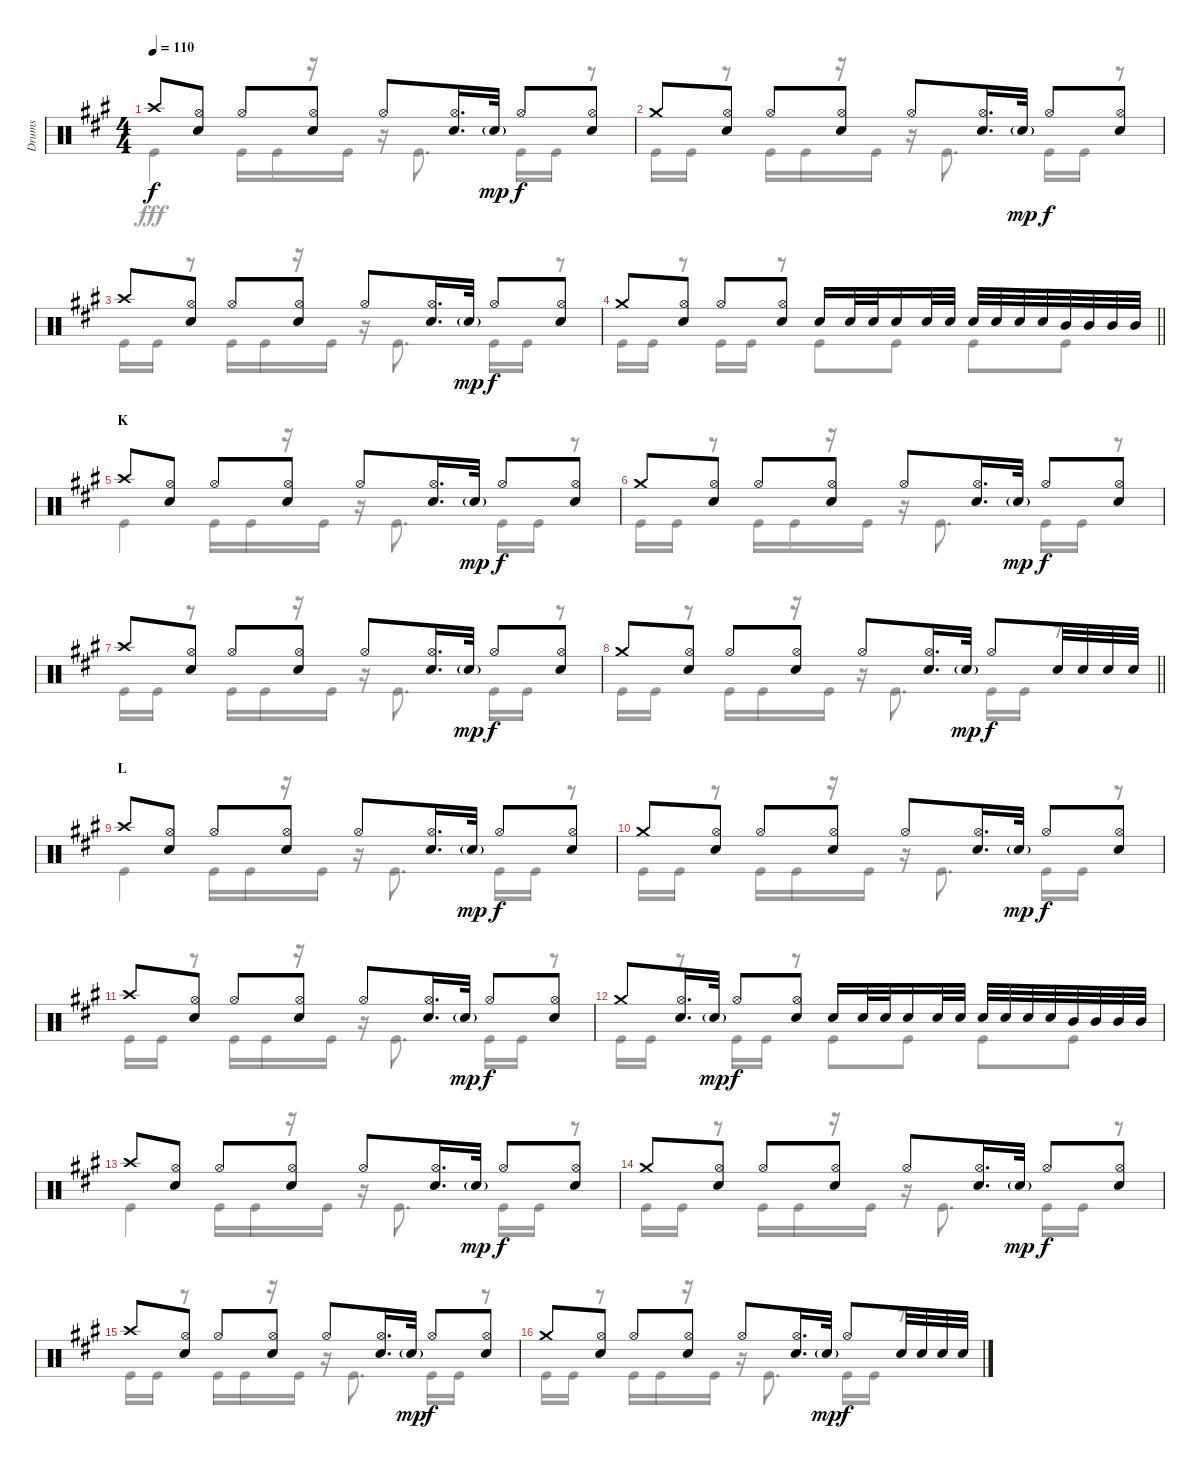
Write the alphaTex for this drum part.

\track ("Drums" "Drums") {instrument percussion}
\staff {score}
\articulation defaults
\voice
\ts (4 4)
\tempo 110
\clef neutral
\ks a "Crash high (hit)".8{dy f}
("Hi-Hat (open)" "Snare (hit) 2").8 "Hi-Hat (open)".8 ("Hi-Hat (open)" "Snare (hit) 2").8 "Hi-Hat (open)".8 ("Hi-Hat (open)" "Snare (hit) 2").16{d} "Snare (hit) 2"{g}.32{dy mp} "Hi-Hat (open)".8{dy f} ("Hi-Hat (open)" "Snare (hit) 2").8 |
"Crash medium (hit)".8 ("Hi-Hat (open)" "Snare (hit) 2").8 "Hi-Hat (open)".8 ("Hi-Hat (open)" "Snare (hit) 2").8 "Hi-Hat (open)".8 ("Hi-Hat (open)" "Snare (hit) 2").16{d} "Snare (hit) 2"{g}.32{dy mp} "Hi-Hat (open)".8{dy f} ("Hi-Hat (open)" "Snare (hit) 2").8 |
"Crash high (hit)".8 ("Hi-Hat (open)" "Snare (hit) 2").8 "Hi-Hat (open)".8 ("Hi-Hat (open)" "Snare (hit) 2").8 "Hi-Hat (open)".8 ("Hi-Hat (open)" "Snare (hit) 2").16{d} "Snare (hit) 2"{g}.32{dy mp} "Hi-Hat (open)".8{dy f} ("Hi-Hat (open)" "Snare (hit) 2").8 |
\barLineRight lightlight "Crash medium (hit)".8
("Hi-Hat (open)" "Snare (hit) 2").8 "Hi-Hat (open)".8 ("Hi-Hat (open)" "Snare (hit) 2").8 "Snare (hit) 2".16 "Snare (hit) 2".32 "Snare (hit) 2".32 "Snare (hit) 2".16 "Snare (hit) 2".32 "Snare (hit) 2".32 "Snare (hit) 2".32 "Snare (hit) 2".32 "Snare (hit) 2".32 "Snare (hit) 2".32 "Mid Tom (hit)".32 "Mid Tom (hit)".32 "Mid Tom (hit)".32 "Mid Tom (hit)".32 |
\section ("" "K")
"Crash high (hit)".8 ("Hi-Hat (open)" "Snare (hit) 2").8 "Hi-Hat (open)".8 ("Hi-Hat (open)" "Snare (hit) 2").8 "Hi-Hat (open)".8 ("Hi-Hat (open)" "Snare (hit) 2").16{d} "Snare (hit) 2"{g}.32{dy mp} "Hi-Hat (open)".8{dy f} ("Hi-Hat (open)" "Snare (hit) 2").8 |
"Crash medium (hit)".8 ("Hi-Hat (open)" "Snare (hit) 2").8 "Hi-Hat (open)".8 ("Hi-Hat (open)" "Snare (hit) 2").8 "Hi-Hat (open)".8 ("Hi-Hat (open)" "Snare (hit) 2").16{d} "Snare (hit) 2"{g}.32{dy mp} "Hi-Hat (open)".8{dy f} ("Hi-Hat (open)" "Snare (hit) 2").8 |
"Crash high (hit)".8 ("Hi-Hat (open)" "Snare (hit) 2").8 "Hi-Hat (open)".8 ("Hi-Hat (open)" "Snare (hit) 2").8 "Hi-Hat (open)".8 ("Hi-Hat (open)" "Snare (hit) 2").16{d} "Snare (hit) 2"{g}.32{dy mp} "Hi-Hat (open)".8{dy f} ("Hi-Hat (open)" "Snare (hit) 2").8 |
\barLineRight lightlight "Crash medium (hit)".8
("Hi-Hat (open)" "Snare (hit) 2").8 "Hi-Hat (open)".8 ("Hi-Hat (open)" "Snare (hit) 2").8 "Hi-Hat (open)".8 ("Hi-Hat (open)" "Snare (hit) 2").16{d} "Snare (hit) 2"{g}.32{dy mp} "Hi-Hat (open)".8{dy f} "Snare (hit) 2".32 "Snare (hit) 2".32 "Snare (hit) 2".32 "Snare (hit) 2".32 |
\section ("" "L")
"Crash high (hit)".8 ("Hi-Hat (open)" "Snare (hit) 2").8 "Hi-Hat (open)".8 ("Hi-Hat (open)" "Snare (hit) 2").8 "Hi-Hat (open)".8 ("Hi-Hat (open)" "Snare (hit) 2").16{d} "Snare (hit) 2"{g}.32{dy mp} "Hi-Hat (open)".8{dy f} ("Hi-Hat (open)" "Snare (hit) 2").8 |
"Crash medium (hit)".8 ("Hi-Hat (open)" "Snare (hit) 2").8 "Hi-Hat (open)".8 ("Hi-Hat (open)" "Snare (hit) 2").8 "Hi-Hat (open)".8 ("Hi-Hat (open)" "Snare (hit) 2").16{d} "Snare (hit) 2"{g}.32{dy mp} "Hi-Hat (open)".8{dy f} ("Hi-Hat (open)" "Snare (hit) 2").8 |
"Crash high (hit)".8 ("Hi-Hat (open)" "Snare (hit) 2").8 "Hi-Hat (open)".8 ("Hi-Hat (open)" "Snare (hit) 2").8 "Hi-Hat (open)".8 ("Hi-Hat (open)" "Snare (hit) 2").16{d} "Snare (hit) 2"{g}.32{dy mp} "Hi-Hat (open)".8{dy f} ("Hi-Hat (open)" "Snare (hit) 2").8 |
"Crash medium (hit)".8 ("Hi-Hat (open)" "Snare (hit) 2").16{d} "Snare (hit) 2"{g}.32{dy mp} "Hi-Hat (open)".8{dy f} ("Hi-Hat (open)" "Snare (hit) 2").8 "Snare (hit) 2".16 "Snare (hit) 2".32 "Snare (hit) 2".32 "Snare (hit) 2".16 "Snare (hit) 2".32 "Snare (hit) 2".32 "Snare (hit) 2".32 "Snare (hit) 2".32 "Snare (hit) 2".32 "Snare (hit) 2".32 "Mid Tom (hit)".32 "Mid Tom (hit)".32 "Mid Tom (hit)".32 "Mid Tom (hit)".32 |
"Crash high (hit)".8 ("Hi-Hat (open)" "Snare (hit) 2").8 "Hi-Hat (open)".8 ("Hi-Hat (open)" "Snare (hit) 2").8 "Hi-Hat (open)".8 ("Hi-Hat (open)" "Snare (hit) 2").16{d} "Snare (hit) 2"{g}.32{dy mp} "Hi-Hat (open)".8{dy f} ("Hi-Hat (open)" "Snare (hit) 2").8 |
"Crash medium (hit)".8 ("Hi-Hat (open)" "Snare (hit) 2").8 "Hi-Hat (open)".8 ("Hi-Hat (open)" "Snare (hit) 2").8 "Hi-Hat (open)".8 ("Hi-Hat (open)" "Snare (hit) 2").16{d} "Snare (hit) 2"{g}.32{dy mp} "Hi-Hat (open)".8{dy f} ("Hi-Hat (open)" "Snare (hit) 2").8 |
"Crash high (hit)".8 ("Hi-Hat (open)" "Snare (hit) 2").8 "Hi-Hat (open)".8 ("Hi-Hat (open)" "Snare (hit) 2").8 "Hi-Hat (open)".8 ("Hi-Hat (open)" "Snare (hit) 2").16{d} "Snare (hit) 2"{g}.32{dy mp} "Hi-Hat (open)".8{dy f} ("Hi-Hat (open)" "Snare (hit) 2").8 |
"Crash medium (hit)".8 ("Hi-Hat (open)" "Snare (hit) 2").8 "Hi-Hat (open)".8 ("Hi-Hat (open)" "Snare (hit) 2").8 "Hi-Hat (open)".8 ("Hi-Hat (open)" "Snare (hit) 2").16{d} "Snare (hit) 2"{g}.32{dy mp} "Hi-Hat (open)".8{dy f} "Snare (hit) 2".32 "Snare (hit) 2".32 "Snare (hit) 2".32 "Snare (hit) 2".32
\voice
\clef neutral
\ottava regular
\simile none
\ks a "Kick (hit)".4{dy fff} "Kick (hit)".16 "Kick (hit)".16
r.16 "Kick (hit)".16 r.16 "Kick (hit)".8{d} "Kick (hit)".16 "Kick (hit)".16 r.8 |
"Kick (hit)".16 "Kick (hit)".16 r.8 "Kick (hit)".16 "Kick (hit)".16 r.16 "Kick (hit)".16 r.16 "Kick (hit)".8{d} "Kick (hit)".16 "Kick (hit)".16 r.8 |
"Kick (hit)".16 "Kick (hit)".16 r.8 "Kick (hit)".16 "Kick (hit)".16 r.16 "Kick (hit)".16 r.16 "Kick (hit)".8{d} "Kick (hit)".16 "Kick (hit)".16 r.8 |
\barLineRight lightlight "Kick (hit)".16 "Kick (hit)".16
r.8 "Kick (hit)".16 "Kick (hit)".16 r.8 "Kick (hit)".8 "Kick (hit)".8 "Kick (hit)".8 "Kick (hit)".8 |
"Kick (hit)".4 "Kick (hit)".16 "Kick (hit)".16 r.16 "Kick (hit)".16 r.16 "Kick (hit)".8{d} "Kick (hit)".16 "Kick (hit)".16 r.8 |
"Kick (hit)".16 "Kick (hit)".16 r.8 "Kick (hit)".16 "Kick (hit)".16 r.16 "Kick (hit)".16 r.16 "Kick (hit)".8{d} "Kick (hit)".16 "Kick (hit)".16 r.8 |
"Kick (hit)".16 "Kick (hit)".16 r.8 "Kick (hit)".16 "Kick (hit)".16 r.16 "Kick (hit)".16 r.16 "Kick (hit)".8{d} "Kick (hit)".16 "Kick (hit)".16 r.8 |
\barLineRight lightlight "Kick (hit)".16 "Kick (hit)".16
r.8 "Kick (hit)".16 "Kick (hit)".16 r.16 "Kick (hit)".16 r.16 "Kick (hit)".8{d} "Kick (hit)".16 "Kick (hit)".16 r.8 |
"Kick (hit)".4 "Kick (hit)".16 "Kick (hit)".16 r.16 "Kick (hit)".16 r.16 "Kick (hit)".8{d} "Kick (hit)".16 "Kick (hit)".16 r.8 |
"Kick (hit)".16 "Kick (hit)".16 r.8 "Kick (hit)".16 "Kick (hit)".16 r.16 "Kick (hit)".16 r.16 "Kick (hit)".8{d} "Kick (hit)".16 "Kick (hit)".16 r.8 |
"Kick (hit)".16 "Kick (hit)".16 r.8 "Kick (hit)".16 "Kick (hit)".16 r.16 "Kick (hit)".16 r.16 "Kick (hit)".8{d} "Kick (hit)".16 "Kick (hit)".16 r.8 |
"Kick (hit)".16 "Kick (hit)".16 r.8 "Kick (hit)".16 "Kick (hit)".16 r.8 "Kick (hit)".8 "Kick (hit)".8 "Kick (hit)".8 "Kick (hit)".8 |
"Kick (hit)".4 "Kick (hit)".16 "Kick (hit)".16 r.16 "Kick (hit)".16 r.16 "Kick (hit)".8{d} "Kick (hit)".16 "Kick (hit)".16 r.8 |
"Kick (hit)".16 "Kick (hit)".16 r.8 "Kick (hit)".16 "Kick (hit)".16 r.16 "Kick (hit)".16 r.16 "Kick (hit)".8{d} "Kick (hit)".16 "Kick (hit)".16 r.8 |
"Kick (hit)".16 "Kick (hit)".16 r.8 "Kick (hit)".16 "Kick (hit)".16 r.16 "Kick (hit)".16 r.16 "Kick (hit)".8{d} "Kick (hit)".16 "Kick (hit)".16 r.8 |
"Kick (hit)".16 "Kick (hit)".16 r.8 "Kick (hit)".16 "Kick (hit)".16 r.16 "Kick (hit)".16 r.16 "Kick (hit)".8{d} "Kick (hit)".16 "Kick (hit)".16 r.8
